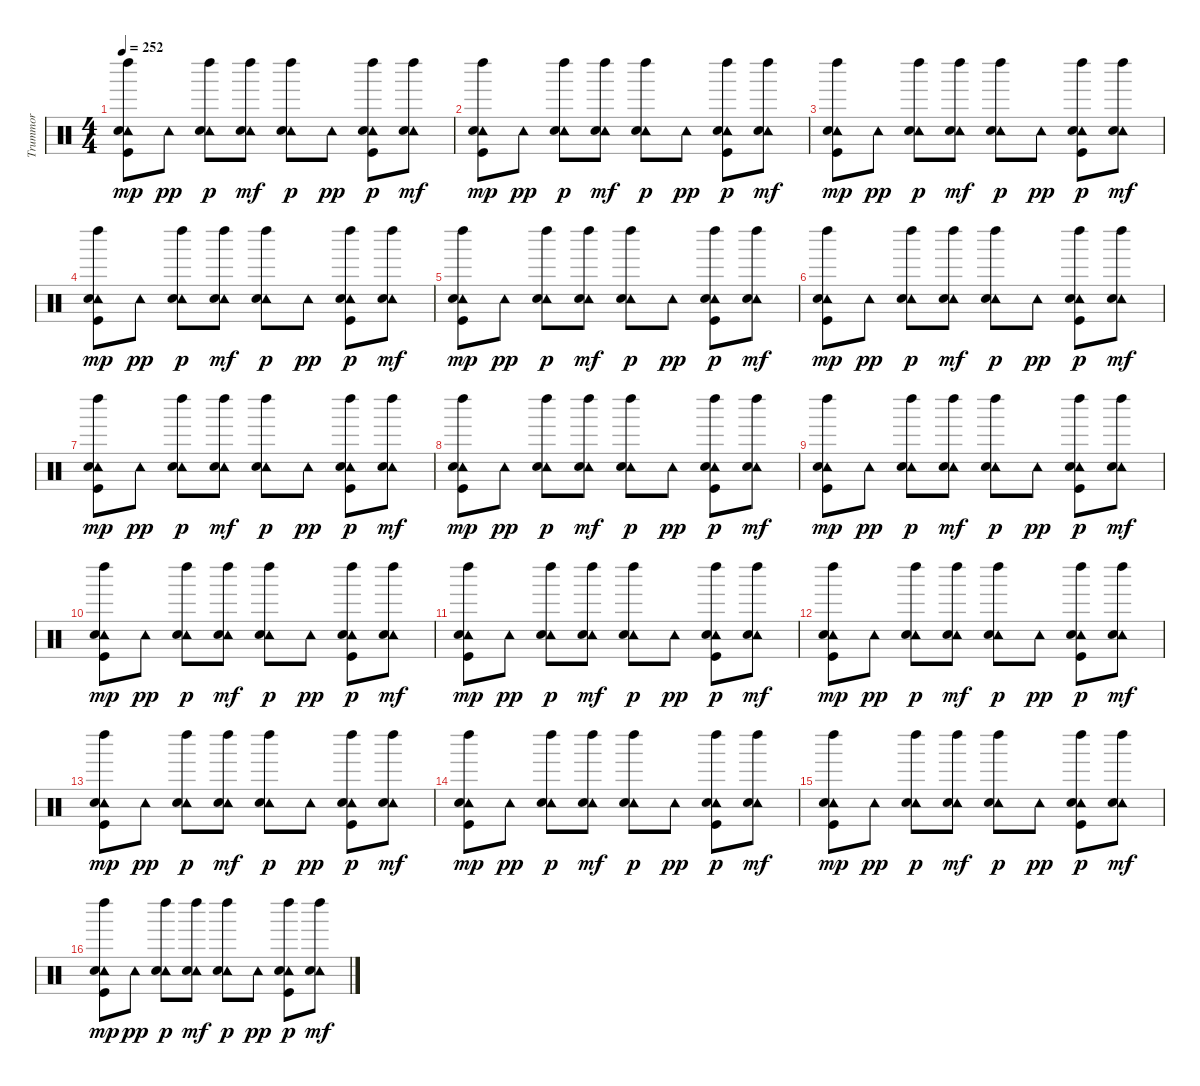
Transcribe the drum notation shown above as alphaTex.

\track ("Trummor" "Trummor") {instrument percussion}
\staff {score}
\articulation defaults
\ts (4 4)
\tempo 252
\clef neutral
\ks c
("Left Maraca (hit)" "Tambourine (hit)" "Snare (hit) 2" "Kick (hit)").8{dy mp} "Tambourine (hit)".8{dy pp} ("Left Maraca (hit)" "Tambourine (hit)" "Snare (hit) 2").8{dy p} ("Left Maraca (hit)" "Tambourine (hit)" "Snare (hit) 2").8{dy mf} ("Left Maraca (hit)" "Tambourine (hit)" "Snare (hit) 2").8{dy p} "Tambourine (hit)".8{dy pp} ("Left Maraca (hit)" "Tambourine (hit)" "Snare (hit) 2" "Kick (hit)").8{dy p} ("Left Maraca (hit)" "Tambourine (hit)" "Snare (hit) 2").8{dy mf} |
("Left Maraca (hit)" "Tambourine (hit)" "Snare (hit) 2" "Kick (hit)").8{dy mp} "Tambourine (hit)".8{dy pp} ("Left Maraca (hit)" "Tambourine (hit)" "Snare (hit) 2").8{dy p} ("Left Maraca (hit)" "Tambourine (hit)" "Snare (hit) 2").8{dy mf} ("Left Maraca (hit)" "Tambourine (hit)" "Snare (hit) 2").8{dy p} "Tambourine (hit)".8{dy pp} ("Left Maraca (hit)" "Tambourine (hit)" "Snare (hit) 2" "Kick (hit)").8{dy p} ("Left Maraca (hit)" "Tambourine (hit)" "Snare (hit) 2").8{dy mf} |
("Left Maraca (hit)" "Tambourine (hit)" "Snare (hit) 2" "Kick (hit)").8{dy mp} "Tambourine (hit)".8{dy pp} ("Left Maraca (hit)" "Tambourine (hit)" "Snare (hit) 2").8{dy p} ("Left Maraca (hit)" "Tambourine (hit)" "Snare (hit) 2").8{dy mf} ("Left Maraca (hit)" "Tambourine (hit)" "Snare (hit) 2").8{dy p} "Tambourine (hit)".8{dy pp} ("Left Maraca (hit)" "Tambourine (hit)" "Snare (hit) 2" "Kick (hit)").8{dy p} ("Left Maraca (hit)" "Tambourine (hit)" "Snare (hit) 2").8{dy mf} |
("Left Maraca (hit)" "Tambourine (hit)" "Snare (hit) 2" "Kick (hit)").8{dy mp} "Tambourine (hit)".8{dy pp} ("Left Maraca (hit)" "Tambourine (hit)" "Snare (hit) 2").8{dy p} ("Left Maraca (hit)" "Tambourine (hit)" "Snare (hit) 2").8{dy mf} ("Left Maraca (hit)" "Tambourine (hit)" "Snare (hit) 2").8{dy p} "Tambourine (hit)".8{dy pp} ("Left Maraca (hit)" "Tambourine (hit)" "Snare (hit) 2" "Kick (hit)").8{dy p} ("Left Maraca (hit)" "Tambourine (hit)" "Snare (hit) 2").8{dy mf} |
("Left Maraca (hit)" "Tambourine (hit)" "Snare (hit) 2" "Kick (hit)").8{dy mp} "Tambourine (hit)".8{dy pp} ("Left Maraca (hit)" "Tambourine (hit)" "Snare (hit) 2").8{dy p} ("Left Maraca (hit)" "Tambourine (hit)" "Snare (hit) 2").8{dy mf} ("Left Maraca (hit)" "Tambourine (hit)" "Snare (hit) 2").8{dy p} "Tambourine (hit)".8{dy pp} ("Left Maraca (hit)" "Tambourine (hit)" "Snare (hit) 2" "Kick (hit)").8{dy p} ("Left Maraca (hit)" "Tambourine (hit)" "Snare (hit) 2").8{dy mf} |
("Left Maraca (hit)" "Tambourine (hit)" "Snare (hit) 2" "Kick (hit)").8{dy mp} "Tambourine (hit)".8{dy pp} ("Left Maraca (hit)" "Tambourine (hit)" "Snare (hit) 2").8{dy p} ("Left Maraca (hit)" "Tambourine (hit)" "Snare (hit) 2").8{dy mf} ("Left Maraca (hit)" "Tambourine (hit)" "Snare (hit) 2").8{dy p} "Tambourine (hit)".8{dy pp} ("Left Maraca (hit)" "Tambourine (hit)" "Snare (hit) 2" "Kick (hit)").8{dy p} ("Left Maraca (hit)" "Tambourine (hit)" "Snare (hit) 2").8{dy mf} |
("Left Maraca (hit)" "Tambourine (hit)" "Snare (hit) 2" "Kick (hit)").8{dy mp} "Tambourine (hit)".8{dy pp} ("Left Maraca (hit)" "Tambourine (hit)" "Snare (hit) 2").8{dy p} ("Left Maraca (hit)" "Tambourine (hit)" "Snare (hit) 2").8{dy mf} ("Left Maraca (hit)" "Tambourine (hit)" "Snare (hit) 2").8{dy p} "Tambourine (hit)".8{dy pp} ("Left Maraca (hit)" "Tambourine (hit)" "Snare (hit) 2" "Kick (hit)").8{dy p} ("Left Maraca (hit)" "Tambourine (hit)" "Snare (hit) 2").8{dy mf} |
("Left Maraca (hit)" "Tambourine (hit)" "Snare (hit) 2" "Kick (hit)").8{dy mp} "Tambourine (hit)".8{dy pp} ("Left Maraca (hit)" "Tambourine (hit)" "Snare (hit) 2").8{dy p} ("Left Maraca (hit)" "Tambourine (hit)" "Snare (hit) 2").8{dy mf} ("Left Maraca (hit)" "Tambourine (hit)" "Snare (hit) 2").8{dy p} "Tambourine (hit)".8{dy pp} ("Left Maraca (hit)" "Tambourine (hit)" "Snare (hit) 2" "Kick (hit)").8{dy p} ("Left Maraca (hit)" "Tambourine (hit)" "Snare (hit) 2").8{dy mf} |
("Left Maraca (hit)" "Tambourine (hit)" "Snare (hit) 2" "Kick (hit)").8{dy mp} "Tambourine (hit)".8{dy pp} ("Left Maraca (hit)" "Tambourine (hit)" "Snare (hit) 2").8{dy p} ("Left Maraca (hit)" "Tambourine (hit)" "Snare (hit) 2").8{dy mf} ("Left Maraca (hit)" "Tambourine (hit)" "Snare (hit) 2").8{dy p} "Tambourine (hit)".8{dy pp} ("Left Maraca (hit)" "Tambourine (hit)" "Snare (hit) 2" "Kick (hit)").8{dy p} ("Left Maraca (hit)" "Tambourine (hit)" "Snare (hit) 2").8{dy mf} |
("Left Maraca (hit)" "Tambourine (hit)" "Snare (hit) 2" "Kick (hit)").8{dy mp} "Tambourine (hit)".8{dy pp} ("Left Maraca (hit)" "Tambourine (hit)" "Snare (hit) 2").8{dy p} ("Left Maraca (hit)" "Tambourine (hit)" "Snare (hit) 2").8{dy mf} ("Left Maraca (hit)" "Tambourine (hit)" "Snare (hit) 2").8{dy p} "Tambourine (hit)".8{dy pp} ("Left Maraca (hit)" "Tambourine (hit)" "Snare (hit) 2" "Kick (hit)").8{dy p} ("Left Maraca (hit)" "Tambourine (hit)" "Snare (hit) 2").8{dy mf} |
("Left Maraca (hit)" "Tambourine (hit)" "Snare (hit) 2" "Kick (hit)").8{dy mp} "Tambourine (hit)".8{dy pp} ("Left Maraca (hit)" "Tambourine (hit)" "Snare (hit) 2").8{dy p} ("Left Maraca (hit)" "Tambourine (hit)" "Snare (hit) 2").8{dy mf} ("Left Maraca (hit)" "Tambourine (hit)" "Snare (hit) 2").8{dy p} "Tambourine (hit)".8{dy pp} ("Left Maraca (hit)" "Tambourine (hit)" "Snare (hit) 2" "Kick (hit)").8{dy p} ("Left Maraca (hit)" "Tambourine (hit)" "Snare (hit) 2").8{dy mf} |
("Left Maraca (hit)" "Tambourine (hit)" "Snare (hit) 2" "Kick (hit)").8{dy mp} "Tambourine (hit)".8{dy pp} ("Left Maraca (hit)" "Tambourine (hit)" "Snare (hit) 2").8{dy p} ("Left Maraca (hit)" "Tambourine (hit)" "Snare (hit) 2").8{dy mf} ("Left Maraca (hit)" "Tambourine (hit)" "Snare (hit) 2").8{dy p} "Tambourine (hit)".8{dy pp} ("Left Maraca (hit)" "Tambourine (hit)" "Snare (hit) 2" "Kick (hit)").8{dy p} ("Left Maraca (hit)" "Tambourine (hit)" "Snare (hit) 2").8{dy mf} |
("Left Maraca (hit)" "Tambourine (hit)" "Snare (hit) 2" "Kick (hit)").8{dy mp} "Tambourine (hit)".8{dy pp} ("Left Maraca (hit)" "Tambourine (hit)" "Snare (hit) 2").8{dy p} ("Left Maraca (hit)" "Tambourine (hit)" "Snare (hit) 2").8{dy mf} ("Left Maraca (hit)" "Tambourine (hit)" "Snare (hit) 2").8{dy p} "Tambourine (hit)".8{dy pp} ("Left Maraca (hit)" "Tambourine (hit)" "Snare (hit) 2" "Kick (hit)").8{dy p} ("Left Maraca (hit)" "Tambourine (hit)" "Snare (hit) 2").8{dy mf} |
("Left Maraca (hit)" "Tambourine (hit)" "Snare (hit) 2" "Kick (hit)").8{dy mp} "Tambourine (hit)".8{dy pp} ("Left Maraca (hit)" "Tambourine (hit)" "Snare (hit) 2").8{dy p} ("Left Maraca (hit)" "Tambourine (hit)" "Snare (hit) 2").8{dy mf} ("Left Maraca (hit)" "Tambourine (hit)" "Snare (hit) 2").8{dy p} "Tambourine (hit)".8{dy pp} ("Left Maraca (hit)" "Tambourine (hit)" "Snare (hit) 2" "Kick (hit)").8{dy p} ("Left Maraca (hit)" "Tambourine (hit)" "Snare (hit) 2").8{dy mf} |
("Left Maraca (hit)" "Tambourine (hit)" "Snare (hit) 2" "Kick (hit)").8{dy mp} "Tambourine (hit)".8{dy pp} ("Left Maraca (hit)" "Tambourine (hit)" "Snare (hit) 2").8{dy p} ("Left Maraca (hit)" "Tambourine (hit)" "Snare (hit) 2").8{dy mf} ("Left Maraca (hit)" "Tambourine (hit)" "Snare (hit) 2").8{dy p} "Tambourine (hit)".8{dy pp} ("Left Maraca (hit)" "Tambourine (hit)" "Snare (hit) 2" "Kick (hit)").8{dy p} ("Left Maraca (hit)" "Tambourine (hit)" "Snare (hit) 2").8{dy mf} |
("Left Maraca (hit)" "Tambourine (hit)" "Snare (hit) 2" "Kick (hit)").8{dy mp} "Tambourine (hit)".8{dy pp} ("Left Maraca (hit)" "Tambourine (hit)" "Snare (hit) 2").8{dy p} ("Left Maraca (hit)" "Tambourine (hit)" "Snare (hit) 2").8{dy mf} ("Left Maraca (hit)" "Tambourine (hit)" "Snare (hit) 2").8{dy p} "Tambourine (hit)".8{dy pp} ("Left Maraca (hit)" "Tambourine (hit)" "Snare (hit) 2" "Kick (hit)").8{dy p} ("Left Maraca (hit)" "Tambourine (hit)" "Snare (hit) 2").8{dy mf}
